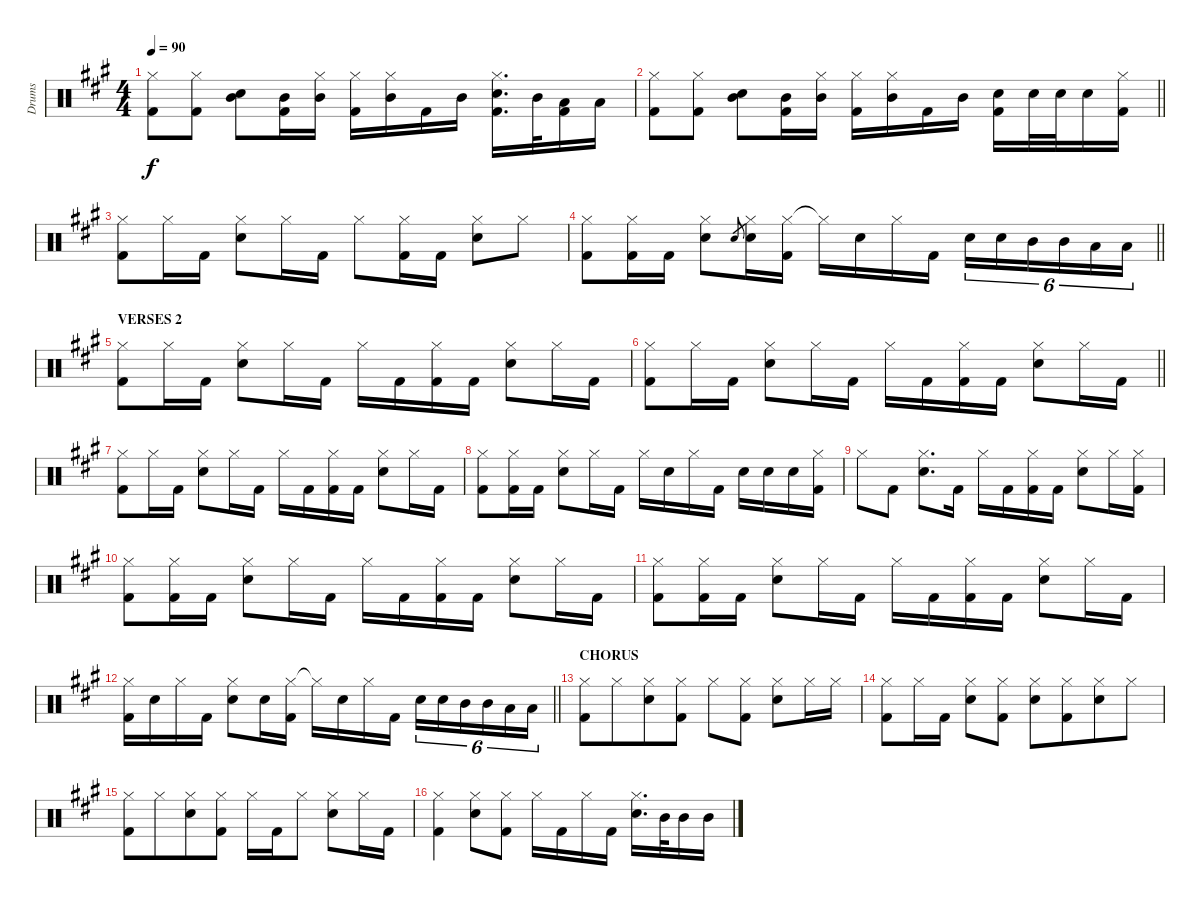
\track ("Drums" "Drums") {instrument percussion}
\staff {score}
\articulation defaults
\ts (4 4)
\tempo 90
\clef neutral
\ks f#minor
("Hi-Hat (closed)" "Kick (hit) 2").8{dy f} ("Hi-Hat (closed)" "Kick (hit) 2").8 ("Mid Tom (hit)" "Electric Snare (hit)").8 ("Mid Tom (hit)" "Kick (hit) 2").16 ("Hi-Hat (closed)" "Mid Tom (hit)").16 ("Hi-Hat (closed)" "Kick (hit) 2").16 ("Hi-Hat (closed)" "Mid Tom (hit)").16 "Kick (hit) 2".16 "Mid Tom (hit)".16 ("Hi-Hat (closed)" "Electric Snare (hit)" "Kick (hit) 2").16{d} "Mid Tom (hit)".32{beam splitsecondary} ("Low Tom (hit)" "Kick (hit) 2").16 "Low Tom (hit)".16 |
\barLineRight lightlight
("Hi-Hat (closed)" "Kick (hit) 2").8 ("Hi-Hat (closed)" "Kick (hit) 2").8 ("Mid Tom (hit)" "Electric Snare (hit)").8 ("Mid Tom (hit)" "Kick (hit) 2").16 ("Hi-Hat (closed)" "Mid Tom (hit)").16 ("Hi-Hat (closed)" "Kick (hit) 2").16 ("Hi-Hat (closed)" "Mid Tom (hit)").16 "Kick (hit) 2".16 "Mid Tom (hit)".16 ("Electric Snare (hit)" "Kick (hit) 2").16 "Electric Snare (hit)".32 "Electric Snare (hit)".32{beam splitsecondary} "Electric Snare (hit)".16 ("Hi-Hat (closed)" "Kick (hit) 2").16 |
("Hi-Hat (closed)" "Kick (hit) 2").8 "Hi-Hat (closed)".16 "Kick (hit) 2".16 ("Hi-Hat (closed)" "Electric Snare (hit)").8 "Hi-Hat (closed)".16 "Kick (hit) 2".16 "Hi-Hat (closed)".8 ("Hi-Hat (closed)" "Kick (hit) 2").16 "Kick (hit) 2".16 ("Hi-Hat (closed)" "Electric Snare (hit)").8 "Hi-Hat (closed)".8 |
\barLineRight lightlight
("Hi-Hat (closed)" "Kick (hit) 2").8 ("Hi-Hat (closed)" "Kick (hit) 2").16 "Kick (hit) 2".16 ("Hi-Hat (closed)" "Electric Snare (hit)").8 "Electric Snare (hit)".8{gr} ("Hi-Hat (closed)" "Electric Snare (hit)").16 ("Hi-Hat (closed)" "Kick (hit) 2").16 "Hi-Hat (closed)"{t}.16 "Electric Snare (hit)".16 "Hi-Hat (closed)".16 "Kick (hit) 2".16 "Electric Snare (hit)".16{tu (6 4)} "Electric Snare (hit)".16{tu (6 4)} "Mid Tom (hit)".16{tu (6 4)} "Mid Tom (hit)".16{tu (6 4)} "Low Tom (hit)".16{tu (6 4)} "Low Tom (hit)".16{tu (6 4)} |
\section ("" "VERSES 2")
("Hi-Hat (closed)" "Kick (hit) 2").8 "Hi-Hat (closed)".16 "Kick (hit) 2".16 ("Hi-Hat (closed)" "Electric Snare (hit)").8 "Hi-Hat (closed)".16 "Kick (hit) 2".16 "Hi-Hat (closed)".16 "Kick (hit) 2".16 ("Hi-Hat (closed)" "Kick (hit) 2").16 "Kick (hit) 2".16 ("Hi-Hat (closed)" "Electric Snare (hit)").8 "Hi-Hat (closed)".16 "Kick (hit) 2".16 |
\barLineRight lightlight
("Hi-Hat (closed)" "Kick (hit) 2").8 "Hi-Hat (closed)".16 "Kick (hit) 2".16 ("Hi-Hat (closed)" "Electric Snare (hit)").8 "Hi-Hat (closed)".16 "Kick (hit) 2".16 "Hi-Hat (closed)".16 "Kick (hit) 2".16 ("Hi-Hat (closed)" "Kick (hit) 2").16 "Kick (hit) 2".16 ("Hi-Hat (closed)" "Electric Snare (hit)").8 "Hi-Hat (closed)".16 "Kick (hit) 2".16 |
("Hi-Hat (closed)" "Kick (hit) 2").8 "Hi-Hat (closed)".16 "Kick (hit) 2".16 ("Hi-Hat (closed)" "Electric Snare (hit)").8 "Hi-Hat (closed)".16 "Kick (hit) 2".16 "Hi-Hat (closed)".16 "Kick (hit) 2".16 ("Hi-Hat (closed)" "Kick (hit) 2").16 "Kick (hit) 2".16 ("Hi-Hat (closed)" "Electric Snare (hit)").8 "Hi-Hat (closed)".16 "Kick (hit) 2".16 |
("Hi-Hat (closed)" "Kick (hit) 2").8 ("Hi-Hat (closed)" "Kick (hit) 2").16 "Kick (hit) 2".16 ("Hi-Hat (closed)" "Electric Snare (hit)").8 "Hi-Hat (closed)".16 "Kick (hit) 2".16 "Hi-Hat (closed)".16 "Electric Snare (hit)".16 "Hi-Hat (closed)".16 "Kick (hit) 2".16 "Electric Snare (hit)".16 "Electric Snare (hit)".16 "Electric Snare (hit)".16 ("Hi-Hat (closed)" "Kick (hit) 2").16 |
"Hi-Hat (closed)".8 "Kick (hit) 2".8 ("Hi-Hat (closed)" "Electric Snare (hit)").8{d} "Kick (hit) 2".16 "Hi-Hat (closed)".16 "Kick (hit) 2".16 ("Hi-Hat (closed)" "Kick (hit) 2").16 "Kick (hit) 2".16 ("Hi-Hat (closed)" "Electric Snare (hit)").8 "Hi-Hat (closed)".16 ("Hi-Hat (closed)" "Kick (hit) 2").16 |
("Hi-Hat (closed)" "Kick (hit) 2").8 ("Hi-Hat (closed)" "Kick (hit) 2").16 "Kick (hit) 2".16 ("Hi-Hat (closed)" "Electric Snare (hit)").8 "Hi-Hat (closed)".16 "Kick (hit) 2".16 "Hi-Hat (closed)".16 "Kick (hit) 2".16 ("Hi-Hat (closed)" "Kick (hit) 2").16 "Kick (hit) 2".16 ("Hi-Hat (closed)" "Electric Snare (hit)").8 "Hi-Hat (closed)".16 "Kick (hit) 2".16 |
("Hi-Hat (closed)" "Kick (hit) 2").8 ("Hi-Hat (closed)" "Kick (hit) 2").16 "Kick (hit) 2".16 ("Hi-Hat (closed)" "Electric Snare (hit)").8 "Hi-Hat (closed)".16 "Kick (hit) 2".16 "Hi-Hat (closed)".16 "Kick (hit) 2".16 ("Hi-Hat (closed)" "Kick (hit) 2").16 "Kick (hit) 2".16 ("Hi-Hat (closed)" "Electric Snare (hit)").8 "Hi-Hat (closed)".16 "Kick (hit) 2".16 |
\barLineRight lightlight
("Hi-Hat (closed)" "Kick (hit) 2").16 "Electric Snare (hit)".16 "Hi-Hat (closed)".16 "Kick (hit) 2".16 ("Hi-Hat (closed)" "Electric Snare (hit)").8 "Electric Snare (hit)".16 ("Hi-Hat (closed)" "Kick (hit) 2").16 "Hi-Hat (closed)"{t}.16 "Electric Snare (hit)".16 "Hi-Hat (closed)".16 "Kick (hit) 2".16 "Electric Snare (hit)".16{tu (6 4)} "Electric Snare (hit)".16{tu (6 4)} "Mid Tom (hit)".16{tu (6 4)} "Mid Tom (hit)".16{tu (6 4)} "Low Tom (hit)".16{tu (6 4)} "Low Tom (hit)".16{tu (6 4)} |
\section ("" "CHORUS")
("Hi-Hat (closed)" "Kick (hit) 2").8 "Hi-Hat (closed)".8{beam merge} ("Hi-Hat (closed)" "Electric Snare (hit)").8 ("Hi-Hat (closed)" "Kick (hit) 2").8 "Hi-Hat (closed)".8 ("Hi-Hat (closed)" "Kick (hit) 2").8 ("Hi-Hat (closed)" "Electric Snare (hit)").8 "Hi-Hat (closed)".16 "Hi-Hat (closed)".16 |
("Hi-Hat (closed)" "Kick (hit) 2").8 "Hi-Hat (closed)".16 "Kick (hit) 2".16{beam split} ("Hi-Hat (closed)" "Electric Snare (hit)").8 ("Hi-Hat (closed)" "Kick (hit) 2").8{beam split} ("Hi-Hat (closed)" "Electric Snare (hit)").8 ("Hi-Hat (closed)" "Kick (hit) 2").8{beam merge} ("Hi-Hat (closed)" "Electric Snare (hit)").8 "Hi-Hat (closed)".8 |
("Hi-Hat (closed)" "Kick (hit) 2").8 "Hi-Hat (closed)".8{beam merge} ("Hi-Hat (closed)" "Electric Snare (hit)").8 ("Hi-Hat (closed)" "Kick (hit) 2").8 "Hi-Hat (closed)".16 "Kick (hit) 2".16 "Hi-Hat (closed)".8 ("Hi-Hat (closed)" "Electric Snare (hit)").8 "Hi-Hat (closed)".16 "Kick (hit) 2".16 |
("Hi-Hat (closed)" "Kick (hit) 2").4 ("Hi-Hat (closed)" "Electric Snare (hit)").8 ("Hi-Hat (closed)" "Kick (hit) 2").8 "Hi-Hat (closed)".16 "Kick (hit) 2".16 "Hi-Hat (closed)".16 "Kick (hit) 2".16 ("Hi-Hat (closed)" "Electric Snare (hit)").16{d} "Mid Tom (hit)".32{beam splitsecondary} "Mid Tom (hit)".16 "Mid Tom (hit)".16
